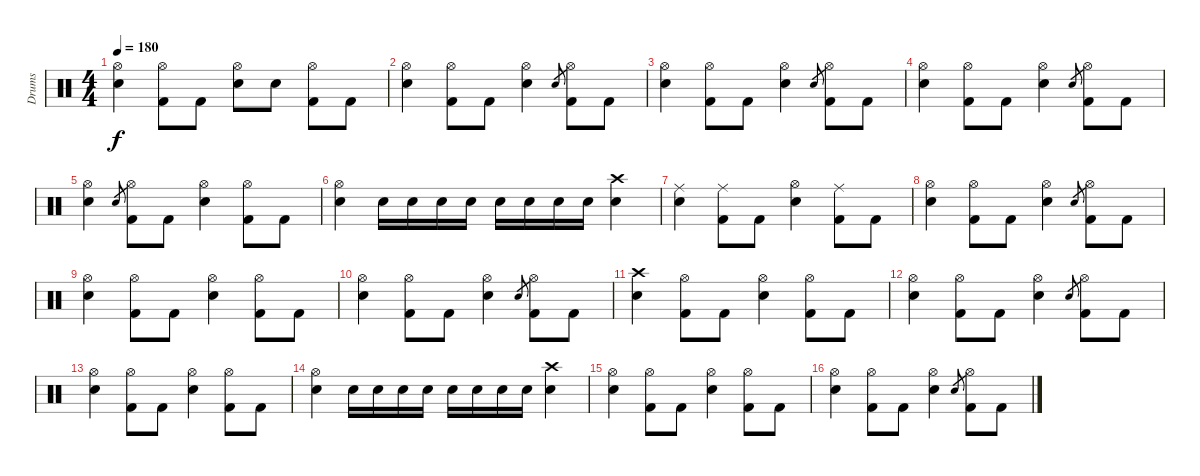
\track ("Drums" "Drums") {instrument percussion}
\staff {score}
\articulation defaults
\ts (4 4)
\tempo 180
\clef neutral
\ks c
("Hi-Hat (open)" "Snare (hit) 2").4{dy f} ("Hi-Hat (open)" "Kick (hit) 2").8 "Kick (hit) 2".8 ("Hi-Hat (open)" "Snare (hit) 2").8 "Snare (hit) 2".8 ("Hi-Hat (open)" "Kick (hit) 2").8 "Kick (hit) 2".8 |
("Hi-Hat (open)" "Snare (hit) 2").4 ("Hi-Hat (open)" "Kick (hit) 2").8 "Kick (hit) 2".8 ("Hi-Hat (open)" "Snare (hit) 2").4 "Snare (hit) 2".8{gr} ("Hi-Hat (open)" "Kick (hit) 2").8 "Kick (hit) 2".8 |
("Hi-Hat (open)" "Snare (hit) 2").4 ("Hi-Hat (open)" "Kick (hit) 2").8 "Kick (hit) 2".8 ("Hi-Hat (open)" "Snare (hit) 2").4 "Snare (hit) 2".8{gr} ("Hi-Hat (open)" "Kick (hit) 2").8 "Kick (hit) 2".8 |
("Hi-Hat (open)" "Snare (hit) 2").4 ("Hi-Hat (open)" "Kick (hit) 2").8 "Kick (hit) 2".8 ("Hi-Hat (open)" "Snare (hit) 2").4 "Snare (hit) 2".8{gr} ("Hi-Hat (open)" "Kick (hit) 2").8 "Kick (hit) 2".8 |
("Hi-Hat (open)" "Snare (hit) 2").4 "Snare (hit) 2".8{gr} ("Hi-Hat (open)" "Kick (hit) 2").8 "Kick (hit) 2".8 ("Hi-Hat (open)" "Snare (hit) 2").4 ("Hi-Hat (open)" "Kick (hit) 2").8 "Kick (hit) 2".8 |
("Hi-Hat (open)" "Snare (hit) 2").4 "Snare (hit) 2".16 "Snare (hit) 2".16 "Snare (hit) 2".16 "Snare (hit) 2".16 "Snare (hit) 2".16 "Snare (hit) 2".16 "Snare (hit) 2".16 "Snare (hit) 2".16 ("Crash high (hit)" "Snare (hit) 2").4 |
("Ride (middle)" "Snare (hit) 2").4 ("Ride (middle)" "Kick (hit) 2").8 "Kick (hit) 2".8 ("Hi-Hat (open)" "Snare (hit) 2").4 ("Ride (middle)" "Kick (hit) 2").8 "Kick (hit) 2".8 |
("Hi-Hat (open)" "Snare (hit) 2").4 ("Hi-Hat (open)" "Kick (hit) 2").8 "Kick (hit) 2".8 ("Hi-Hat (open)" "Snare (hit) 2").4 "Snare (hit) 2".8{gr} ("Hi-Hat (open)" "Kick (hit) 2").8 "Kick (hit) 2".8 |
("Hi-Hat (open)" "Snare (hit) 2").4 ("Hi-Hat (open)" "Kick (hit) 2").8 "Kick (hit) 2".8 ("Hi-Hat (open)" "Snare (hit) 2").4 ("Hi-Hat (open)" "Kick (hit) 2").8 "Kick (hit) 2".8 |
("Hi-Hat (open)" "Snare (hit) 2").4 ("Hi-Hat (open)" "Kick (hit) 2").8 "Kick (hit) 2".8 ("Hi-Hat (open)" "Snare (hit) 2").4 "Snare (hit) 2".8{gr} ("Hi-Hat (open)" "Kick (hit) 2").8 "Kick (hit) 2".8 |
("Crash high (hit)" "Snare (hit) 2").4 ("Hi-Hat (open)" "Kick (hit) 2").8 "Kick (hit) 2".8 ("Hi-Hat (open)" "Snare (hit) 2").4 ("Hi-Hat (open)" "Kick (hit) 2").8 "Kick (hit) 2".8 |
("Hi-Hat (open)" "Snare (hit) 2").4 ("Hi-Hat (open)" "Kick (hit) 2").8 "Kick (hit) 2".8 ("Hi-Hat (open)" "Snare (hit) 2").4 "Snare (hit) 2".8{gr} ("Hi-Hat (open)" "Kick (hit) 2").8 "Kick (hit) 2".8 |
("Hi-Hat (open)" "Snare (hit) 2").4 ("Hi-Hat (open)" "Kick (hit) 2").8 "Kick (hit) 2".8 ("Hi-Hat (open)" "Snare (hit) 2").4 ("Hi-Hat (open)" "Kick (hit) 2").8 "Kick (hit) 2".8 |
("Hi-Hat (open)" "Snare (hit) 2").4 "Snare (hit) 2".16 "Snare (hit) 2".16 "Snare (hit) 2".16 "Snare (hit) 2".16 "Snare (hit) 2".16 "Snare (hit) 2".16 "Snare (hit) 2".16 "Snare (hit) 2".16 ("Crash high (hit)" "Snare (hit) 2").4 |
("Hi-Hat (open)" "Snare (hit) 2").4 ("Hi-Hat (open)" "Kick (hit) 2").8 "Kick (hit) 2".8 ("Hi-Hat (open)" "Snare (hit) 2").4 ("Hi-Hat (open)" "Kick (hit) 2").8 "Kick (hit) 2".8 |
("Hi-Hat (open)" "Snare (hit) 2").4 ("Hi-Hat (open)" "Kick (hit) 2").8 "Kick (hit) 2".8 ("Hi-Hat (open)" "Snare (hit) 2").4 "Snare (hit) 2".8{gr} ("Hi-Hat (open)" "Kick (hit) 2").8 "Kick (hit) 2".8
